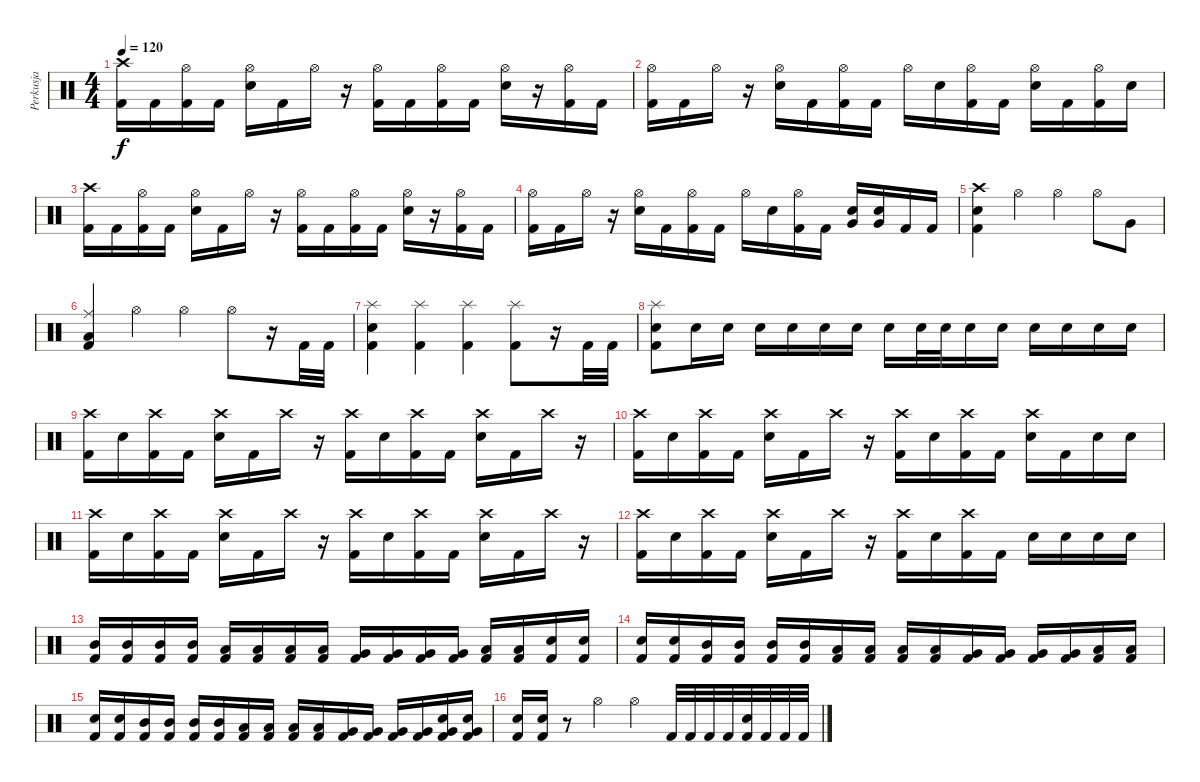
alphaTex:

\track ("Perkusja" "Perkusja") {instrument percussion}
\staff {score}
\articulation defaults
\ts (4 4)
\tempo 120
\clef neutral
\ks c
("Crash high (hit)" "Kick (hit) 2").16{dy f} "Kick (hit) 2".16 ("Hi-Hat (open)" "Kick (hit) 2").16 "Kick (hit) 2".16 ("Hi-Hat (open)" "Electric Snare (hit)").16 "Kick (hit) 2".16 "Hi-Hat (open)".16 r.16 ("Hi-Hat (open)" "Kick (hit) 2").16 "Kick (hit) 2".16 ("Hi-Hat (open)" "Kick (hit) 2").16 "Kick (hit) 2".16 ("Hi-Hat (open)" "Electric Snare (hit)").16 r.16 ("Hi-Hat (open)" "Kick (hit) 2").16 "Kick (hit) 2".16 |
("Hi-Hat (open)" "Kick (hit) 2").16 "Kick (hit) 2".16 "Hi-Hat (open)".16 r.16 ("Hi-Hat (open)" "Electric Snare (hit)").16 "Kick (hit) 2".16 ("Hi-Hat (open)" "Kick (hit) 2").16 "Kick (hit) 2".16 "Hi-Hat (open)".16 "Electric Snare (hit)".16 ("Hi-Hat (open)" "Kick (hit) 2").16 "Kick (hit) 2".16 ("Hi-Hat (open)" "Electric Snare (hit)").16 "Kick (hit) 2".16 ("Hi-Hat (open)" "Kick (hit) 2").16 "Electric Snare (hit)".16 |
("Crash high (hit)" "Kick (hit) 2").16 "Kick (hit) 2".16 ("Hi-Hat (open)" "Kick (hit) 2").16 "Kick (hit) 2".16 ("Hi-Hat (open)" "Electric Snare (hit)").16 "Kick (hit) 2".16 "Hi-Hat (open)".16 r.16 ("Hi-Hat (open)" "Kick (hit) 2").16 "Kick (hit) 2".16 ("Hi-Hat (open)" "Kick (hit) 2").16 "Kick (hit) 2".16 ("Hi-Hat (open)" "Electric Snare (hit)").16 r.16 ("Hi-Hat (open)" "Kick (hit) 2").16 "Kick (hit) 2".16 |
("Hi-Hat (open)" "Kick (hit) 2").16 "Kick (hit) 2".16 "Hi-Hat (open)".16 r.16 ("Hi-Hat (open)" "Electric Snare (hit)").16 "Kick (hit) 2".16 ("Hi-Hat (open)" "Kick (hit) 2").16 "Kick (hit) 2".16 "Hi-Hat (open)".16 "Electric Snare (hit)".16 ("Hi-Hat (open)" "Kick (hit) 2").16 "Kick (hit) 2".16 ("Very Low Tom (hit)" "Electric Snare (hit)").16 ("Very Low Tom (hit)" "Electric Snare (hit)").16 "Kick (hit) 2".16 "Kick (hit) 2".16 |
("Crash high (hit)" "Electric Snare (hit)" "Kick (hit) 2").4 "Hi-Hat (open)".4 "Hi-Hat (open)".4 "Hi-Hat (open)".8 "Very Low Tom (hit)".8 |
("Ride (middle)" "Low Floor Tom (hit)" "Kick (hit) 2").4 "Hi-Hat (open)".4 "Hi-Hat (open)".4 "Hi-Hat (open)".8 r.16 "Kick (hit) 2".32 "Kick (hit) 2".32 |
("Splash (hit)" "Electric Snare (hit)" "Kick (hit) 2").4 ("Splash (hit)" "Kick (hit) 2").4 ("Splash (hit)" "Kick (hit) 2").4 ("Splash (hit)" "Kick (hit) 2").8 r.16 "Kick (hit) 2".32 "Kick (hit) 2".32 |
("Splash (hit)" "Electric Snare (hit)" "Kick (hit) 2").8 "Electric Snare (hit)".16 "Electric Snare (hit)".16 "Electric Snare (hit)".16 "Electric Snare (hit)".16 "Electric Snare (hit)".16 "Electric Snare (hit)".16 "Electric Snare (hit)".16 "Electric Snare (hit)".32 "Electric Snare (hit)".32 "Electric Snare (hit)".16 "Electric Snare (hit)".16 "Electric Snare (hit)".16 "Electric Snare (hit)".16 "Electric Snare (hit)".16 "Electric Snare (hit)".16 |
("Crash high (hit)" "Kick (hit) 2").16 "Electric Snare (hit)".16 ("Crash high (hit)" "Kick (hit) 2").16 "Kick (hit) 2".16 ("Crash high (hit)" "Electric Snare (hit)").16 "Kick (hit) 2".16 "Crash high (hit)".16 r.16 ("Crash high (hit)" "Kick (hit) 2").16 "Electric Snare (hit)".16 ("Crash high (hit)" "Kick (hit) 2").16 "Kick (hit) 2".16 ("Crash high (hit)" "Electric Snare (hit)").16 "Kick (hit) 2".16 "Crash high (hit)".16 r.16 |
("Crash high (hit)" "Kick (hit) 2").16 "Electric Snare (hit)".16 ("Crash high (hit)" "Kick (hit) 2").16 "Kick (hit) 2".16 ("Crash high (hit)" "Electric Snare (hit)").16 "Kick (hit) 2".16 "Crash high (hit)".16 r.16 ("Crash high (hit)" "Kick (hit) 2").16 "Electric Snare (hit)".16 ("Crash high (hit)" "Kick (hit) 2").16 "Kick (hit) 2".16 ("Crash high (hit)" "Electric Snare (hit)").16 "Kick (hit) 2".16 "Electric Snare (hit)".16 "Electric Snare (hit)".16 |
("Crash high (hit)" "Kick (hit) 2").16 "Electric Snare (hit)".16 ("Crash high (hit)" "Kick (hit) 2").16 "Kick (hit) 2".16 ("Crash high (hit)" "Electric Snare (hit)").16 "Kick (hit) 2".16 "Crash high (hit)".16 r.16 ("Crash high (hit)" "Kick (hit) 2").16 "Electric Snare (hit)".16 ("Crash high (hit)" "Kick (hit) 2").16 "Kick (hit) 2".16 ("Crash high (hit)" "Electric Snare (hit)").16 "Kick (hit) 2".16 "Crash high (hit)".16 r.16 |
("Crash high (hit)" "Kick (hit) 2").16 "Electric Snare (hit)".16 ("Crash high (hit)" "Kick (hit) 2").16 "Kick (hit) 2".16 ("Crash high (hit)" "Electric Snare (hit)").16 "Kick (hit) 2".16 "Crash high (hit)".16 r.16 ("Crash high (hit)" "Kick (hit) 2").16 "Electric Snare (hit)".16 ("Crash high (hit)" "Kick (hit) 2").16 "Kick (hit) 2".16 "Electric Snare (hit)".16 "Electric Snare (hit)".16 "Electric Snare (hit)".16 "Electric Snare (hit)".16 |
("Mid Tom (hit)" "Kick (hit) 2").16 ("Mid Tom (hit)" "Kick (hit) 2").16 ("Mid Tom (hit)" "Kick (hit) 2").16 ("Mid Tom (hit)" "Kick (hit) 2").16 ("Low Tom (hit)" "Kick (hit) 2").16 ("Low Tom (hit)" "Kick (hit) 2").16 ("Low Tom (hit)" "Kick (hit) 2").16 ("Low Tom (hit)" "Kick (hit) 2").16 ("Very Low Tom (hit)" "Kick (hit) 2").16 ("Very Low Tom (hit)" "Kick (hit) 2").16 ("Very Low Tom (hit)" "Kick (hit) 2").16 ("Very Low Tom (hit)" "Kick (hit) 2").16 ("Low Floor Tom (hit)" "Kick (hit) 2").16 ("Low Floor Tom (hit)" "Kick (hit) 2").16 ("Electric Snare (hit)" "Kick (hit) 2").16 ("Electric Snare (hit)" "Kick (hit) 2").16 |
("Electric Snare (hit)" "Kick (hit) 2").16 ("Electric Snare (hit)" "Kick (hit) 2").16 ("Mid Tom (hit)" "Kick (hit) 2").16 ("Mid Tom (hit)" "Kick (hit) 2").16 ("Mid Tom (hit)" "Kick (hit) 2").16 ("Mid Tom (hit)" "Kick (hit) 2").16 ("Low Tom (hit)" "Kick (hit) 2").16 ("Low Tom (hit)" "Kick (hit) 2").16 ("Low Tom (hit)" "Kick (hit) 2").16 ("Low Tom (hit)" "Kick (hit) 2").16 ("Very Low Tom (hit)" "Kick (hit) 2").16 ("Very Low Tom (hit)" "Kick (hit) 2").16 ("Very Low Tom (hit)" "Kick (hit) 2").16 ("Very Low Tom (hit)" "Kick (hit) 2").16 ("Low Floor Tom (hit)" "Kick (hit) 2").16 ("Low Floor Tom (hit)" "Kick (hit) 2").16 |
("Electric Snare (hit)" "Kick (hit) 2").16 ("Electric Snare (hit)" "Kick (hit) 2").16 ("Mid Tom (hit)" "Kick (hit) 2").16 ("Mid Tom (hit)" "Kick (hit) 2").16 ("Mid Tom (hit)" "Kick (hit) 2").16 ("Mid Tom (hit)" "Kick (hit) 2").16 ("Low Tom (hit)" "Kick (hit) 2").16 ("Low Tom (hit)" "Kick (hit) 2").16 ("Low Tom (hit)" "Kick (hit) 2").16 ("Low Tom (hit)" "Kick (hit) 2").16 ("Very Low Tom (hit)" "Kick (hit) 2").16 ("Very Low Tom (hit)" "Kick (hit) 2").16 ("Very Low Tom (hit)" "Kick (hit) 2").16 ("Very Low Tom (hit)" "Kick (hit) 2").16 ("Electric Snare (hit)" "Very Low Tom (hit)" "Kick (hit) 2").16 ("Electric Snare (hit)" "Very Low Tom (hit)" "Kick (hit) 2").16 |
("Electric Snare (hit)" "Kick (hit) 2").16 ("Electric Snare (hit)" "Kick (hit) 2").16 r.8 "Hi-Hat (open)".4 "Hi-Hat (open)".4 "Kick (hit) 2".32 "Kick (hit) 2".32 "Kick (hit) 2".32 "Kick (hit) 2".32 ("Electric Snare (hit)" "Kick (hit) 2").32 "Kick (hit) 2".32 "Kick (hit) 2".32 "Kick (hit) 2".32
